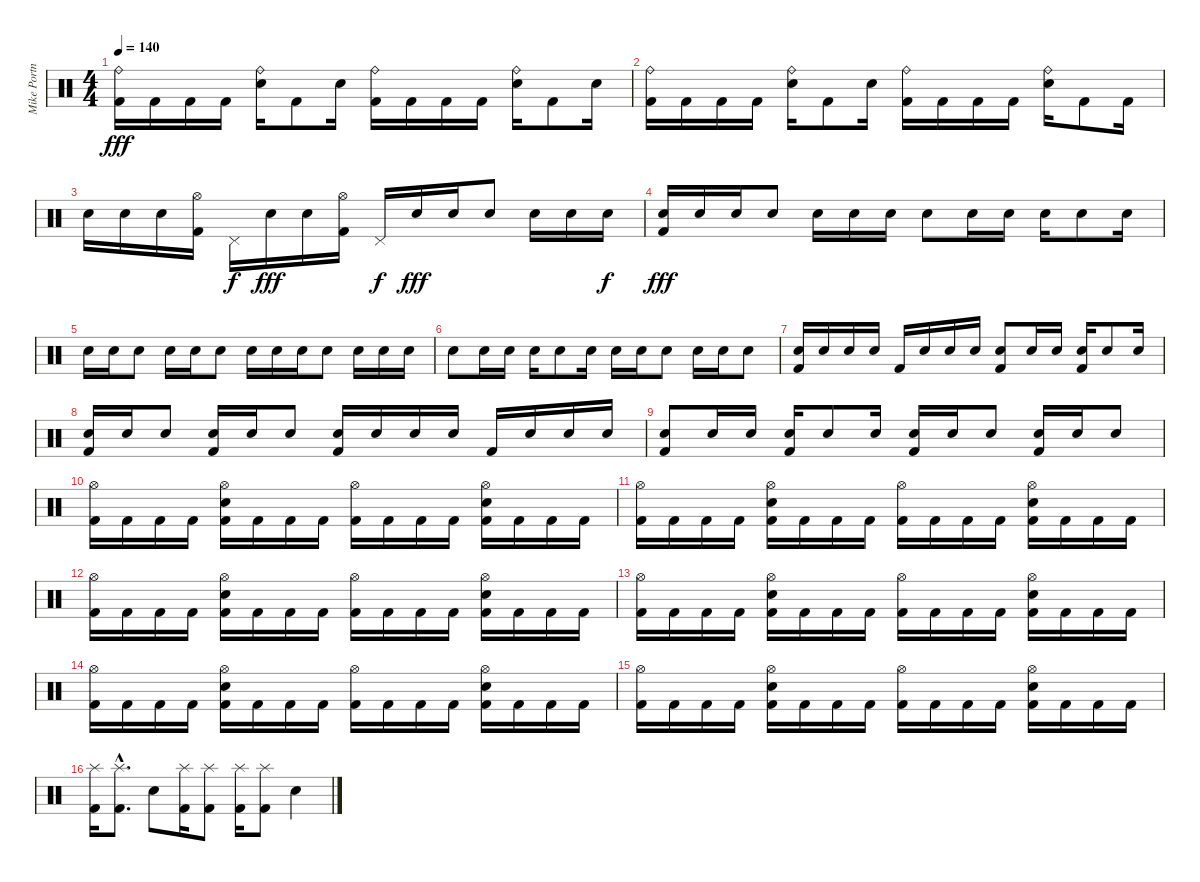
\track ("Mike Portnoy" "Mike Portn") {instrument percussion}
\staff {score}
\articulation defaults
\ts (4 4)
\tempo 140
\clef neutral
\ks c
("Ride (bell)" "Kick (hit) 2").16{dy fff} "Kick (hit) 2".16 "Kick (hit) 2".16 "Kick (hit) 2".16 ("Ride (bell)" "Snare (hit) 2").16 "Kick (hit) 2".8 "Snare (hit) 2".16 ("Ride (bell)" "Kick (hit) 2").16 "Kick (hit) 2".16 "Kick (hit) 2".16 "Kick (hit) 2".16 ("Ride (bell)" "Snare (hit) 2").16 "Kick (hit) 2".8 "Snare (hit) 2".16 |
("Ride (bell)" "Kick (hit) 2").16 "Kick (hit) 2".16 "Kick (hit) 2".16 "Kick (hit) 2".16 ("Ride (bell)" "Snare (hit) 2").16 "Kick (hit) 2".8 "Snare (hit) 2".16 ("Ride (bell)" "Kick (hit) 2").16 "Kick (hit) 2".16 "Kick (hit) 2".16 "Kick (hit) 2".16 ("Ride (bell)" "Snare (hit) 2").16 "Kick (hit) 2".8 "Kick (hit) 2".16 |
"Snare (hit) 2".16 "Snare (hit) 2".16 "Snare (hit) 2".16 ("Hi-Hat (open)" "Kick (hit) 2").16 "Pedal Hi-Hat (hit)".16{dy f} "Snare (hit) 2".16{dy fff} "Snare (hit) 2".16 ("Hi-Hat (open)" "Kick (hit) 2").16 "Pedal Hi-Hat (hit)".16{dy f} "Snare (hit) 2".16{dy fff} "Snare (hit) 2".16 "Snare (hit) 2".8 "Snare (hit) 2".16 "Snare (hit) 2".16 "Snare (hit) 2".16{dy f} |
("Snare (hit) 2" "Kick (hit) 2").16{dy fff} "Snare (hit) 2".16 "Snare (hit) 2".16 "Snare (hit) 2".8 "Snare (hit) 2".16 "Snare (hit) 2".16 "Snare (hit) 2".16 "Snare (hit) 2".8 "Snare (hit) 2".16 "Snare (hit) 2".16 "Snare (hit) 2".16 "Snare (hit) 2".8 "Snare (hit) 2".16 |
"Snare (hit) 2".16 "Snare (hit) 2".16 "Snare (hit) 2".8 "Snare (hit) 2".16 "Snare (hit) 2".16 "Snare (hit) 2".8 "Snare (hit) 2".16 "Snare (hit) 2".16 "Snare (hit) 2".16 "Snare (hit) 2".8 "Snare (hit) 2".16 "Snare (hit) 2".16 "Snare (hit) 2".16 |
"Snare (hit) 2".8 "Snare (hit) 2".16 "Snare (hit) 2".16 "Snare (hit) 2".16 "Snare (hit) 2".8 "Snare (hit) 2".16 "Snare (hit) 2".16 "Snare (hit) 2".16 "Snare (hit) 2".8 "Snare (hit) 2".16 "Snare (hit) 2".16 "Snare (hit) 2".8 |
("Snare (hit) 2" "Kick (hit) 2").16 "Snare (hit) 2".16 "Snare (hit) 2".16 "Snare (hit) 2".16 "Kick (hit) 2".16 "Snare (hit) 2".16 "Snare (hit) 2".16 "Snare (hit) 2".16 ("Snare (hit) 2" "Kick (hit) 2").8 "Snare (hit) 2".16 "Snare (hit) 2".16 ("Snare (hit) 2" "Kick (hit) 2").16 "Snare (hit) 2".8 "Snare (hit) 2".16 |
("Snare (hit) 2" "Kick (hit) 2").16 "Snare (hit) 2".16 "Snare (hit) 2".8 ("Snare (hit) 2" "Kick (hit) 2").16 "Snare (hit) 2".16 "Snare (hit) 2".8 ("Snare (hit) 2" "Kick (hit) 2").16 "Snare (hit) 2".16 "Snare (hit) 2".16 "Snare (hit) 2".16 "Kick (hit) 2".16 "Snare (hit) 2".16 "Snare (hit) 2".16 "Snare (hit) 2".16 |
("Snare (hit) 2" "Kick (hit) 2").8 "Snare (hit) 2".16 "Snare (hit) 2".16 ("Snare (hit) 2" "Kick (hit) 2").16 "Snare (hit) 2".8 "Snare (hit) 2".16 ("Snare (hit) 2" "Kick (hit) 2").16 "Snare (hit) 2".16 "Snare (hit) 2".8 ("Snare (hit) 2" "Kick (hit) 2").16 "Snare (hit) 2".16 "Snare (hit) 2".8 |
("Hi-Hat (open)" "Kick (hit) 2").16 "Kick (hit) 2".16 "Kick (hit) 2".16 "Kick (hit) 2".16 ("Hi-Hat (open)" "Snare (hit) 2" "Kick (hit) 2").16 "Kick (hit) 2".16 "Kick (hit) 2".16 "Kick (hit) 2".16 ("Hi-Hat (open)" "Kick (hit) 2").16 "Kick (hit) 2".16 "Kick (hit) 2".16 "Kick (hit) 2".16 ("Hi-Hat (open)" "Snare (hit) 2" "Kick (hit) 2").16 "Kick (hit) 2".16 "Kick (hit) 2".16 "Kick (hit) 2".16 |
("Hi-Hat (open)" "Kick (hit) 2").16 "Kick (hit) 2".16 "Kick (hit) 2".16 "Kick (hit) 2".16 ("Hi-Hat (open)" "Snare (hit) 2" "Kick (hit) 2").16 "Kick (hit) 2".16 "Kick (hit) 2".16 "Kick (hit) 2".16 ("Hi-Hat (open)" "Kick (hit) 2").16 "Kick (hit) 2".16 "Kick (hit) 2".16 "Kick (hit) 2".16 ("Hi-Hat (open)" "Snare (hit) 2" "Kick (hit) 2").16 "Kick (hit) 2".16 "Kick (hit) 2".16 "Kick (hit) 2".16 |
("Hi-Hat (open)" "Kick (hit) 2").16 "Kick (hit) 2".16 "Kick (hit) 2".16 "Kick (hit) 2".16 ("Hi-Hat (open)" "Snare (hit) 2" "Kick (hit) 2").16 "Kick (hit) 2".16 "Kick (hit) 2".16 "Kick (hit) 2".16 ("Hi-Hat (open)" "Kick (hit) 2").16 "Kick (hit) 2".16 "Kick (hit) 2".16 "Kick (hit) 2".16 ("Hi-Hat (open)" "Snare (hit) 2" "Kick (hit) 2").16 "Kick (hit) 2".16 "Kick (hit) 2".16 "Kick (hit) 2".16 |
("Hi-Hat (open)" "Kick (hit) 2").16 "Kick (hit) 2".16 "Kick (hit) 2".16 "Kick (hit) 2".16 ("Hi-Hat (open)" "Snare (hit) 2" "Kick (hit) 2").16 "Kick (hit) 2".16 "Kick (hit) 2".16 "Kick (hit) 2".16 ("Hi-Hat (open)" "Kick (hit) 2").16 "Kick (hit) 2".16 "Kick (hit) 2".16 "Kick (hit) 2".16 ("Hi-Hat (open)" "Snare (hit) 2" "Kick (hit) 2").16 "Kick (hit) 2".16 "Kick (hit) 2".16 "Kick (hit) 2".16 |
("Hi-Hat (open)" "Kick (hit) 2").16 "Kick (hit) 2".16 "Kick (hit) 2".16 "Kick (hit) 2".16 ("Hi-Hat (open)" "Snare (hit) 2" "Kick (hit) 2").16 "Kick (hit) 2".16 "Kick (hit) 2".16 "Kick (hit) 2".16 ("Hi-Hat (open)" "Kick (hit) 2").16 "Kick (hit) 2".16 "Kick (hit) 2".16 "Kick (hit) 2".16 ("Hi-Hat (open)" "Snare (hit) 2" "Kick (hit) 2").16 "Kick (hit) 2".16 "Kick (hit) 2".16 "Kick (hit) 2".16 |
("Hi-Hat (open)" "Kick (hit) 2").16 "Kick (hit) 2".16 "Kick (hit) 2".16 "Kick (hit) 2".16 ("Hi-Hat (open)" "Snare (hit) 2" "Kick (hit) 2").16 "Kick (hit) 2".16 "Kick (hit) 2".16 "Kick (hit) 2".16 ("Hi-Hat (open)" "Kick (hit) 2").16 "Kick (hit) 2".16 "Kick (hit) 2".16 "Kick (hit) 2".16 ("Hi-Hat (open)" "Snare (hit) 2" "Kick (hit) 2").16 "Kick (hit) 2".16 "Kick (hit) 2".16 "Kick (hit) 2".16 |
("Splash (hit)" "Kick (hit) 2").16 ("Splash (hit)"{hac} "Kick (hit) 2"{hac}).8{d} "Snare (hit) 2".8 ("Splash (hit)" "Kick (hit) 2").16 ("Splash (hit)" "Kick (hit) 2").8 ("Splash (hit)" "Kick (hit) 2").16 ("Splash (hit)" "Kick (hit) 2").8 "Snare (hit) 2".4
